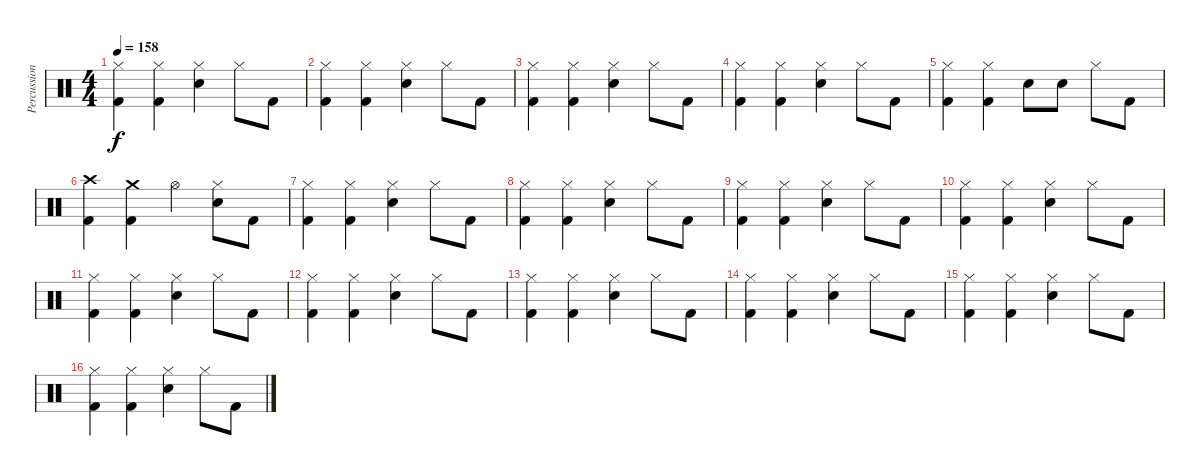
\track ("Percussions" "Percussion") {instrument percussion}
\staff {score}
\articulation defaults
\ts (4 4)
\tempo 158
\clef neutral
\ks c
("Hi-Hat (closed)" "Kick (hit) 2").4{dy f} ("Hi-Hat (closed)" "Kick (hit) 2").4 ("Hi-Hat (closed)" "Snare (hit) 2").4 "Hi-Hat (closed)".8 "Kick (hit) 2".8 |
("Hi-Hat (closed)" "Kick (hit) 2").4 ("Hi-Hat (closed)" "Kick (hit) 2").4 ("Hi-Hat (closed)" "Snare (hit) 2").4 "Hi-Hat (closed)".8 "Kick (hit) 2".8 |
("Hi-Hat (closed)" "Kick (hit) 2").4 ("Hi-Hat (closed)" "Kick (hit) 2").4 ("Hi-Hat (closed)" "Snare (hit) 2").4 "Hi-Hat (closed)".8 "Kick (hit) 2".8 |
("Hi-Hat (closed)" "Kick (hit) 2").4 ("Hi-Hat (closed)" "Kick (hit) 2").4 ("Hi-Hat (closed)" "Snare (hit) 2").4 "Hi-Hat (closed)".8 "Kick (hit) 2".8 |
("Hi-Hat (closed)" "Kick (hit) 2").4 ("Hi-Hat (closed)" "Kick (hit) 2").4 "Snare (hit) 2".8 "Snare (hit) 2".8 "Hi-Hat (closed)".8 "Kick (hit) 2".8 |
("Crash high (hit)" "Kick (hit) 2").4 ("Crash medium (hit)" "Kick (hit) 2").4 "Hi-Hat (open)".4 ("Hi-Hat (closed)" "Snare (hit) 2").8 "Kick (hit) 2".8 |
("Hi-Hat (closed)" "Kick (hit) 2").4 ("Hi-Hat (closed)" "Kick (hit) 2").4 ("Hi-Hat (closed)" "Snare (hit) 2").4 "Hi-Hat (closed)".8 "Kick (hit) 2".8 |
("Hi-Hat (closed)" "Kick (hit) 2").4 ("Hi-Hat (closed)" "Kick (hit) 2").4 ("Hi-Hat (closed)" "Snare (hit) 2").4 "Hi-Hat (closed)".8 "Kick (hit) 2".8 |
("Hi-Hat (closed)" "Kick (hit) 2").4 ("Hi-Hat (closed)" "Kick (hit) 2").4 ("Hi-Hat (closed)" "Snare (hit) 2").4 "Hi-Hat (closed)".8 "Kick (hit) 2".8 |
("Hi-Hat (closed)" "Kick (hit) 2").4 ("Hi-Hat (closed)" "Kick (hit) 2").4 ("Hi-Hat (closed)" "Snare (hit) 2").4 "Hi-Hat (closed)".8 "Kick (hit) 2".8 |
("Hi-Hat (closed)" "Kick (hit) 2").4 ("Hi-Hat (closed)" "Kick (hit) 2").4 ("Hi-Hat (closed)" "Snare (hit) 2").4 "Hi-Hat (closed)".8 "Kick (hit) 2".8 |
("Hi-Hat (closed)" "Kick (hit) 2").4 ("Hi-Hat (closed)" "Kick (hit) 2").4 ("Hi-Hat (closed)" "Snare (hit) 2").4 "Hi-Hat (closed)".8 "Kick (hit) 2".8 |
("Hi-Hat (closed)" "Kick (hit) 2").4 ("Hi-Hat (closed)" "Kick (hit) 2").4 ("Hi-Hat (closed)" "Snare (hit) 2").4 "Hi-Hat (closed)".8 "Kick (hit) 2".8 |
("Hi-Hat (closed)" "Kick (hit) 2").4 ("Hi-Hat (closed)" "Kick (hit) 2").4 ("Hi-Hat (closed)" "Snare (hit) 2").4 "Hi-Hat (closed)".8 "Kick (hit) 2".8 |
("Hi-Hat (closed)" "Kick (hit) 2").4 ("Hi-Hat (closed)" "Kick (hit) 2").4 ("Hi-Hat (closed)" "Snare (hit) 2").4 "Hi-Hat (closed)".8 "Kick (hit) 2".8 |
("Hi-Hat (closed)" "Kick (hit) 2").4 ("Hi-Hat (closed)" "Kick (hit) 2").4 ("Hi-Hat (closed)" "Snare (hit) 2").4 "Hi-Hat (closed)".8 "Kick (hit) 2".8
